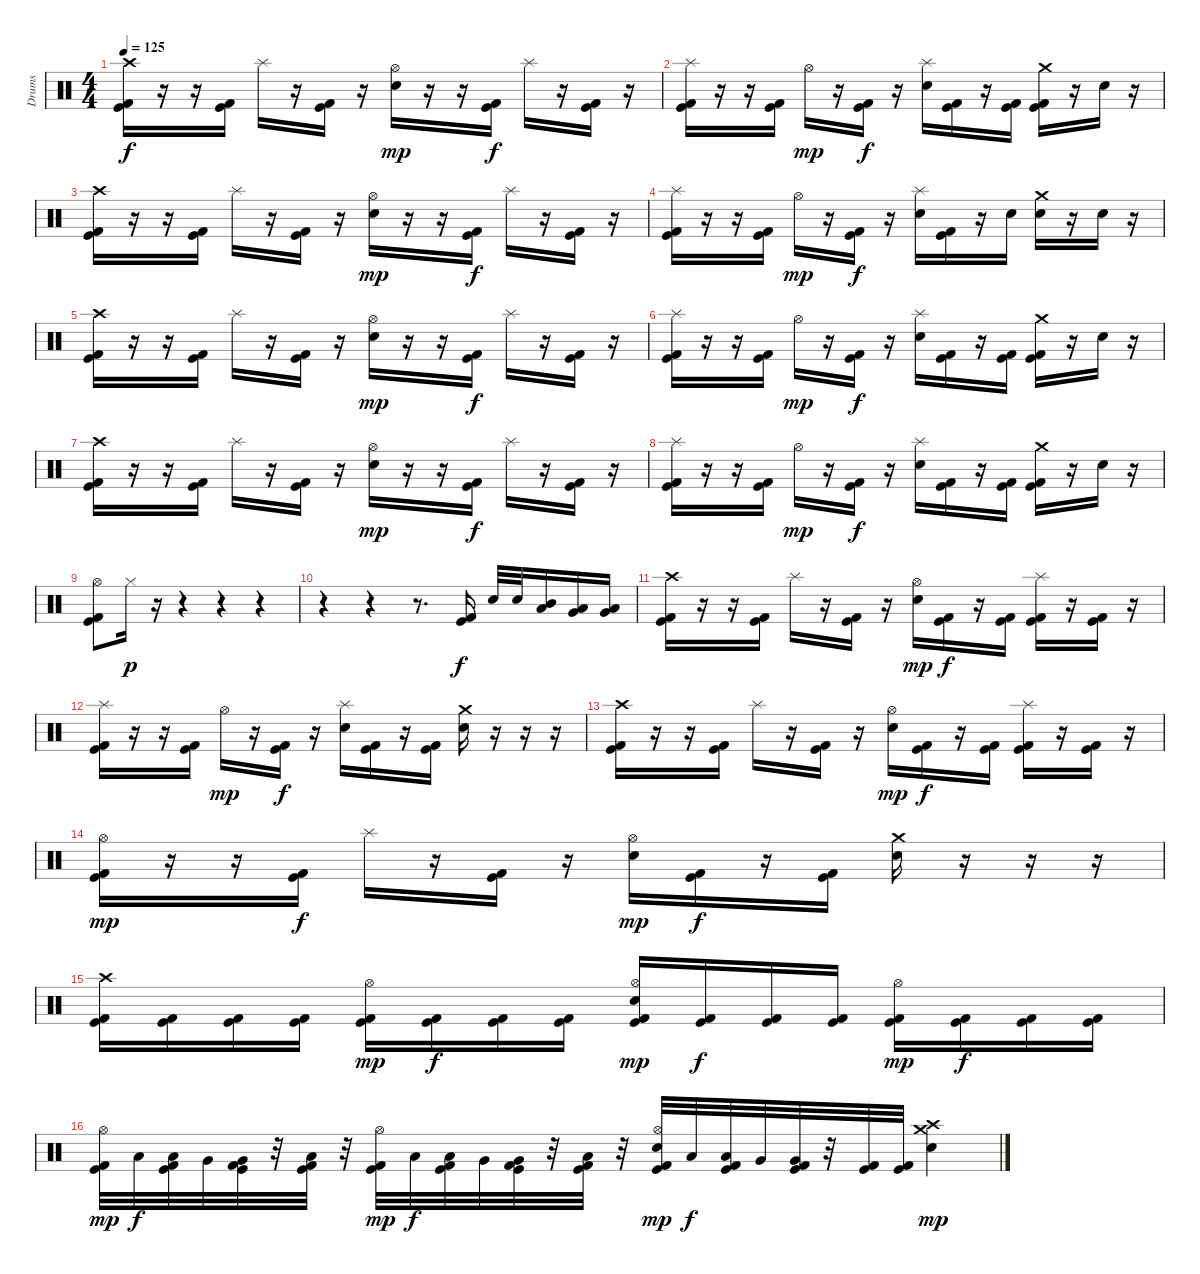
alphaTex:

\track ("Drums" "Drums") {instrument percussion}
\staff {score}
\articulation defaults
\ts (4 4)
\tempo 125
\clef neutral
\ks c
("Crash high (hit)" "Kick (hit)" "Kick (hit) 2").16{dy f} r.16 r.16 ("Kick (hit)" "Kick (hit) 2").16 "Splash (hit)".16 r.16 ("Kick (hit)" "Kick (hit) 2").16 r.16 ("Hi-Hat (open)" "Electric Snare (hit)").16{dy mp} r.16 r.16 ("Kick (hit)" "Kick (hit) 2").16{dy f} "Splash (hit)".16 r.16 ("Kick (hit)" "Kick (hit) 2").16 r.16 |
("Splash (hit)" "Kick (hit)" "Kick (hit) 2").16 r.16 r.16 ("Kick (hit)" "Kick (hit) 2").16 "Hi-Hat (open)".16{dy mp} r.16 ("Kick (hit)" "Kick (hit) 2").16{dy f} r.16 ("Splash (hit)" "Electric Snare (hit)").16 ("Kick (hit)" "Kick (hit) 2").16 r.16 ("Kick (hit)" "Kick (hit) 2").16 ("Crash medium (hit)" "Kick (hit)" "Kick (hit) 2").16 r.16 "Electric Snare (hit)".16 r.16 |
("Crash high (hit)" "Kick (hit)" "Kick (hit) 2").16 r.16 r.16 ("Kick (hit)" "Kick (hit) 2").16 "Splash (hit)".16 r.16 ("Kick (hit)" "Kick (hit) 2").16 r.16 ("Hi-Hat (open)" "Electric Snare (hit)").16{dy mp} r.16 r.16 ("Kick (hit)" "Kick (hit) 2").16{dy f} "Splash (hit)".16 r.16 ("Kick (hit)" "Kick (hit) 2").16 r.16 |
("Splash (hit)" "Kick (hit)" "Kick (hit) 2").16 r.16 r.16 ("Kick (hit)" "Kick (hit) 2").16 "Hi-Hat (open)".16{dy mp} r.16 ("Kick (hit)" "Kick (hit) 2").16{dy f} r.16 ("Splash (hit)" "Electric Snare (hit)").16 ("Kick (hit)" "Kick (hit) 2").16 r.16 "Electric Snare (hit)".16 ("Crash medium (hit)" "Electric Snare (hit)").16 r.16 "Electric Snare (hit)".16 r.16 |
("Crash high (hit)" "Kick (hit)" "Kick (hit) 2").16 r.16 r.16 ("Kick (hit)" "Kick (hit) 2").16 "Splash (hit)".16 r.16 ("Kick (hit)" "Kick (hit) 2").16 r.16 ("Hi-Hat (open)" "Electric Snare (hit)").16{dy mp} r.16 r.16 ("Kick (hit)" "Kick (hit) 2").16{dy f} "Splash (hit)".16 r.16 ("Kick (hit)" "Kick (hit) 2").16 r.16 |
("Splash (hit)" "Kick (hit)" "Kick (hit) 2").16 r.16 r.16 ("Kick (hit)" "Kick (hit) 2").16 "Hi-Hat (open)".16{dy mp} r.16 ("Kick (hit)" "Kick (hit) 2").16{dy f} r.16 ("Splash (hit)" "Electric Snare (hit)").16 ("Kick (hit)" "Kick (hit) 2").16 r.16 ("Kick (hit)" "Kick (hit) 2").16 ("Crash medium (hit)" "Kick (hit)" "Kick (hit) 2").16 r.16 "Electric Snare (hit)".16 r.16 |
("Crash high (hit)" "Kick (hit)" "Kick (hit) 2").16 r.16 r.16 ("Kick (hit)" "Kick (hit) 2").16 "Splash (hit)".16 r.16 ("Kick (hit)" "Kick (hit) 2").16 r.16 ("Hi-Hat (open)" "Electric Snare (hit)").16{dy mp} r.16 r.16 ("Kick (hit)" "Kick (hit) 2").16{dy f} "Splash (hit)".16 r.16 ("Kick (hit)" "Kick (hit) 2").16 r.16 |
("Splash (hit)" "Kick (hit)" "Kick (hit) 2").16 r.16 r.16 ("Kick (hit)" "Kick (hit) 2").16 "Hi-Hat (open)".16{dy mp} r.16 ("Kick (hit)" "Kick (hit) 2").16{dy f} r.16 ("Splash (hit)" "Electric Snare (hit)").16 ("Kick (hit)" "Kick (hit) 2").16 r.16 ("Kick (hit)" "Kick (hit) 2").16 ("Crash medium (hit)" "Kick (hit)" "Kick (hit) 2").16 r.16 "Electric Snare (hit)".16 r.16 |
("Hi-Hat (open)" "Kick (hit)" "Kick (hit) 2").8 "Hi-Hat (closed)".16{dy p} r.16 r.4 r.4 r.4 |
r.4 r.4 r.8{d} ("Kick (hit)" "Kick (hit) 2").16{dy f} "Electric Snare (hit)".32 "Electric Snare (hit)".32 ("Mid Tom (hit)" "Low Tom (hit)").16 ("Low Tom (hit)" "Very Low Tom (hit)").16 ("Very Low Tom (hit)" "Low Floor Tom (hit)").16 |
("Crash high (hit)" "Kick (hit)" "Kick (hit) 2").16 r.16 r.16 ("Kick (hit)" "Kick (hit) 2").16 "Splash (hit)".16 r.16 ("Kick (hit)" "Kick (hit) 2").16 r.16 ("Hi-Hat (open)" "Electric Snare (hit)").16{dy mp} ("Kick (hit)" "Kick (hit) 2").16{dy f} r.16 ("Kick (hit)" "Kick (hit) 2").16 ("Splash (hit)" "Kick (hit)" "Kick (hit) 2").16 r.16 ("Kick (hit)" "Kick (hit) 2").16 r.16 |
("Splash (hit)" "Kick (hit)" "Kick (hit) 2").16 r.16 r.16 ("Kick (hit)" "Kick (hit) 2").16 "Hi-Hat (open)".16{dy mp} r.16 ("Kick (hit)" "Kick (hit) 2").16{dy f} r.16 ("Splash (hit)" "Electric Snare (hit)").16 ("Kick (hit)" "Kick (hit) 2").16 r.16 ("Kick (hit)" "Kick (hit) 2").16 ("Crash medium (hit)" "Electric Snare (hit)").16 r.16 r.16 r.16 |
("Crash high (hit)" "Kick (hit)" "Kick (hit) 2").16 r.16 r.16 ("Kick (hit)" "Kick (hit) 2").16 "Splash (hit)".16 r.16 ("Kick (hit)" "Kick (hit) 2").16 r.16 ("Hi-Hat (open)" "Electric Snare (hit)").16{dy mp} ("Kick (hit)" "Kick (hit) 2").16{dy f} r.16 ("Kick (hit)" "Kick (hit) 2").16 ("Splash (hit)" "Kick (hit)" "Kick (hit) 2").16 r.16 ("Kick (hit)" "Kick (hit) 2").16 r.16 |
("Hi-Hat (open)" "Kick (hit)" "Kick (hit) 2").16{dy mp} r.16 r.16 ("Kick (hit)" "Kick (hit) 2").16{dy f} "Splash (hit)".16 r.16 ("Kick (hit)" "Kick (hit) 2").16 r.16 ("Hi-Hat (open)" "Electric Snare (hit)").16{dy mp} ("Kick (hit)" "Kick (hit) 2").16{dy f} r.16 ("Kick (hit)" "Kick (hit) 2").16 ("Crash medium (hit)" "Electric Snare (hit)").16 r.16 r.16 r.16 |
("Crash high (hit)" "Kick (hit)" "Kick (hit) 2").16 ("Kick (hit)" "Kick (hit) 2").16 ("Kick (hit)" "Kick (hit) 2").16 ("Kick (hit)" "Kick (hit) 2").16 ("Hi-Hat (open)" "Kick (hit)" "Kick (hit) 2").16{dy mp} ("Kick (hit)" "Kick (hit) 2").16{dy f} ("Kick (hit)" "Kick (hit) 2").16 ("Kick (hit)" "Kick (hit) 2").16 ("Hi-Hat (open)" "Electric Snare (hit)" "Kick (hit)" "Kick (hit) 2").16{dy mp} ("Kick (hit)" "Kick (hit) 2").16{dy f} ("Kick (hit)" "Kick (hit) 2").16 ("Kick (hit)" "Kick (hit) 2").16 ("Hi-Hat (open)" "Kick (hit)" "Kick (hit) 2").16{dy mp} ("Kick (hit)" "Kick (hit) 2").16{dy f} ("Kick (hit)" "Kick (hit) 2").16 ("Kick (hit)" "Kick (hit) 2").16 |
("Hi-Hat (open)" "Kick (hit)" "Kick (hit) 2").32{dy mp} "Low Tom (hit)".32{dy f} ("Low Tom (hit)" "Kick (hit)" "Kick (hit) 2").32 "Very Low Tom (hit)".32 ("Very Low Tom (hit)" "Kick (hit)" "Kick (hit) 2").32 r.32 ("Low Floor Tom (hit)" "Kick (hit)" "Kick (hit) 2").32 r.32 ("Hi-Hat (open)" "Kick (hit)" "Kick (hit) 2").32{dy mp} "Low Tom (hit)".32{dy f} ("Low Tom (hit)" "Kick (hit)" "Kick (hit) 2").32 "Very Low Tom (hit)".32 ("Very Low Tom (hit)" "Kick (hit)" "Kick (hit) 2").32 r.32 ("Low Floor Tom (hit)" "Kick (hit)" "Kick (hit) 2").32 r.32 ("Hi-Hat (open)" "Electric Snare (hit)" "Kick (hit)" "Kick (hit) 2").32{dy mp} "Low Tom (hit)".32{dy f} ("Low Tom (hit)" "Kick (hit)" "Kick (hit) 2").32 "Very Low Tom (hit)".32 ("Very Low Tom (hit)" "Kick (hit)" "Kick (hit) 2").32 r.32 ("Kick (hit)" "Kick (hit) 2").32 ("Kick (hit)" "Kick (hit) 2").32 ("Crash medium (hit)" "Crash high (hit)" "Electric Snare (hit)").4{dy mp}
